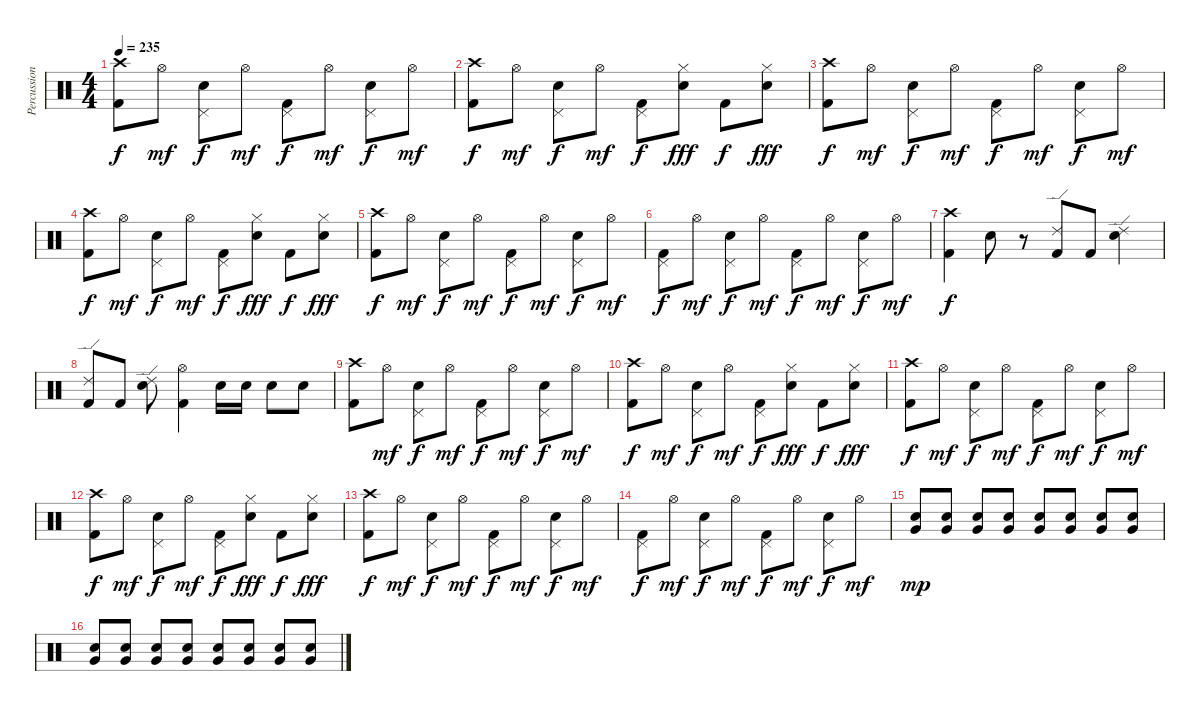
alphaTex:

\track ("Percussion" "Percussion") {instrument percussion}
\staff {score}
\articulation defaults
\ts (4 4)
\tempo 235
\clef neutral
\ks c
("Crash high (hit)" "Kick (hit) 2").8{dy f} "Hi-Hat (open)".8{dy mf} ("Pedal Hi-Hat (hit)" "Snare (hit) 2").8{dy f} "Hi-Hat (open)".8{dy mf} ("Pedal Hi-Hat (hit)" "Kick (hit) 2").8{dy f} "Hi-Hat (open)".8{dy mf} ("Pedal Hi-Hat (hit)" "Snare (hit) 2").8{dy f} "Hi-Hat (open)".8{dy mf} |
("Crash high (hit)" "Kick (hit) 2").8{dy f} "Hi-Hat (open)".8{dy mf} ("Pedal Hi-Hat (hit)" "Snare (hit) 2").8{dy f} "Hi-Hat (open)".8{dy mf} ("Pedal Hi-Hat (hit)" "Kick (hit) 2").8{dy f} ("Hi-Hat (closed)" "Snare (hit) 2").8{dy fff} "Kick (hit) 2".8{dy f} ("Hi-Hat (closed)" "Snare (hit) 2").8{dy fff} |
("Crash high (hit)" "Kick (hit) 2").8{dy f} "Hi-Hat (open)".8{dy mf} ("Pedal Hi-Hat (hit)" "Snare (hit) 2").8{dy f} "Hi-Hat (open)".8{dy mf} ("Pedal Hi-Hat (hit)" "Kick (hit) 2").8{dy f} "Hi-Hat (open)".8{dy mf} ("Pedal Hi-Hat (hit)" "Snare (hit) 2").8{dy f} "Hi-Hat (open)".8{dy mf} |
("Crash high (hit)" "Kick (hit) 2").8{dy f} "Hi-Hat (open)".8{dy mf} ("Pedal Hi-Hat (hit)" "Snare (hit) 2").8{dy f} "Hi-Hat (open)".8{dy mf} ("Pedal Hi-Hat (hit)" "Kick (hit) 2").8{dy f} ("Hi-Hat (closed)" "Snare (hit) 2").8{dy fff} "Kick (hit) 2".8{dy f} ("Hi-Hat (closed)" "Snare (hit) 2").8{dy fff} |
("Crash high (hit)" "Kick (hit) 2").8{dy f} "Hi-Hat (open)".8{dy mf} ("Pedal Hi-Hat (hit)" "Snare (hit) 2").8{dy f} "Hi-Hat (open)".8{dy mf} ("Pedal Hi-Hat (hit)" "Kick (hit) 2").8{dy f} "Hi-Hat (open)".8{dy mf} ("Pedal Hi-Hat (hit)" "Snare (hit) 2").8{dy f} "Hi-Hat (open)".8{dy mf} |
("Pedal Hi-Hat (hit)" "Kick (hit) 2").8{dy f} "Hi-Hat (open)".8{dy mf} ("Pedal Hi-Hat (hit)" "Snare (hit) 2").8{dy f} "Hi-Hat (open)".8{dy mf} ("Pedal Hi-Hat (hit)" "Kick (hit) 2").8{dy f} "Hi-Hat (open)".8{dy mf} ("Pedal Hi-Hat (hit)" "Snare (hit) 2").8{dy f} "Hi-Hat (open)".8{dy mf} |
("Crash high (hit)" "Kick (hit) 2").4{dy f} "Electric Snare (hit)".8 r.8 ("Ride (edge) 2" "Kick (hit) 2").8 "Kick (hit) 2".8 ("Ride (edge) 2" "Electric Snare (hit)").4 |
("Ride (edge) 2" "Kick (hit) 2").8 "Kick (hit) 2".8 ("Ride (edge) 2" "Electric Snare (hit)").8 ("Hi-Hat (open)" "Kick (hit) 2").4 "Snare (hit) 2".16 "Snare (hit) 2".16 "Snare (hit) 2".8 "Snare (hit) 2".8 |
("Crash high (hit)" "Kick (hit) 2").8 "Hi-Hat (open)".8{dy mf} ("Pedal Hi-Hat (hit)" "Snare (hit) 2").8{dy f} "Hi-Hat (open)".8{dy mf} ("Pedal Hi-Hat (hit)" "Kick (hit) 2").8{dy f} "Hi-Hat (open)".8{dy mf} ("Pedal Hi-Hat (hit)" "Snare (hit) 2").8{dy f} "Hi-Hat (open)".8{dy mf} |
("Crash high (hit)" "Kick (hit) 2").8{dy f} "Hi-Hat (open)".8{dy mf} ("Pedal Hi-Hat (hit)" "Snare (hit) 2").8{dy f} "Hi-Hat (open)".8{dy mf} ("Pedal Hi-Hat (hit)" "Kick (hit) 2").8{dy f} ("Hi-Hat (closed)" "Snare (hit) 2").8{dy fff} "Kick (hit) 2".8{dy f} ("Hi-Hat (closed)" "Snare (hit) 2").8{dy fff} |
("Crash high (hit)" "Kick (hit) 2").8{dy f} "Hi-Hat (open)".8{dy mf} ("Pedal Hi-Hat (hit)" "Snare (hit) 2").8{dy f} "Hi-Hat (open)".8{dy mf} ("Pedal Hi-Hat (hit)" "Kick (hit) 2").8{dy f} "Hi-Hat (open)".8{dy mf} ("Pedal Hi-Hat (hit)" "Snare (hit) 2").8{dy f} "Hi-Hat (open)".8{dy mf} |
("Crash high (hit)" "Kick (hit) 2").8{dy f} "Hi-Hat (open)".8{dy mf} ("Pedal Hi-Hat (hit)" "Snare (hit) 2").8{dy f} "Hi-Hat (open)".8{dy mf} ("Pedal Hi-Hat (hit)" "Kick (hit) 2").8{dy f} ("Hi-Hat (closed)" "Snare (hit) 2").8{dy fff} "Kick (hit) 2".8{dy f} ("Hi-Hat (closed)" "Snare (hit) 2").8{dy fff} |
("Crash high (hit)" "Kick (hit) 2").8{dy f} "Hi-Hat (open)".8{dy mf} ("Pedal Hi-Hat (hit)" "Snare (hit) 2").8{dy f} "Hi-Hat (open)".8{dy mf} ("Pedal Hi-Hat (hit)" "Kick (hit) 2").8{dy f} "Hi-Hat (open)".8{dy mf} ("Pedal Hi-Hat (hit)" "Snare (hit) 2").8{dy f} "Hi-Hat (open)".8{dy mf} |
("Pedal Hi-Hat (hit)" "Kick (hit) 2").8{dy f} "Hi-Hat (open)".8{dy mf} ("Pedal Hi-Hat (hit)" "Snare (hit) 2").8{dy f} "Hi-Hat (open)".8{dy mf} ("Pedal Hi-Hat (hit)" "Kick (hit) 2").8{dy f} "Hi-Hat (open)".8{dy mf} ("Pedal Hi-Hat (hit)" "Snare (hit) 2").8{dy f} "Hi-Hat (open)".8{dy mf} |
("Very Low Tom (hit)" "Snare (hit) 2").8{dy mp} ("Very Low Tom (hit)" "Snare (hit) 2").8 ("Very Low Tom (hit)" "Snare (hit) 2").8 ("Very Low Tom (hit)" "Snare (hit) 2").8 ("Very Low Tom (hit)" "Snare (hit) 2").8 ("Very Low Tom (hit)" "Snare (hit) 2").8 ("Very Low Tom (hit)" "Snare (hit) 2").8 ("Very Low Tom (hit)" "Snare (hit) 2").8 |
("Very Low Tom (hit)" "Snare (hit) 2").8 ("Very Low Tom (hit)" "Snare (hit) 2").8 ("Very Low Tom (hit)" "Snare (hit) 2").8 ("Very Low Tom (hit)" "Snare (hit) 2").8 ("Very Low Tom (hit)" "Snare (hit) 2").8 ("Very Low Tom (hit)" "Snare (hit) 2").8 ("Very Low Tom (hit)" "Snare (hit) 2").8 ("Very Low Tom (hit)" "Snare (hit) 2").8
